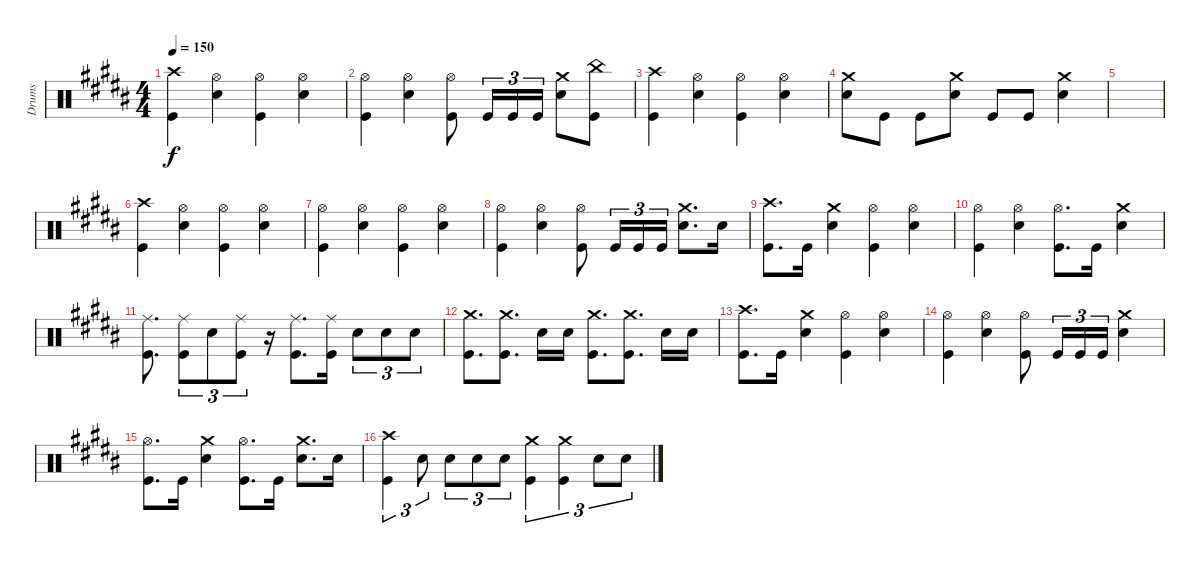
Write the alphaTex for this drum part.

\track ("Drums" "Drums") {instrument percussion}
\staff {score}
\articulation defaults
\ts (4 4)
\tempo 150
\clef neutral
\ks b
("Crash high (hit)" "Kick (hit)").4{dy f} ("Snare (hit) 2" "Hi-Hat (open)").4 ("Kick (hit)" "Hi-Hat (open)").4 ("Snare (hit) 2" "Hi-Hat (open)").4 |
\ks g#minor
("Kick (hit)" "Hi-Hat (open)").4 ("Snare (hit) 2" "Hi-Hat (open)").4 ("Kick (hit)" "Hi-Hat (open)").8 "Kick (hit)".16{tu (3 2)} "Kick (hit)".16{tu (3 2)} "Kick (hit)".16{tu (3 2)} ("Snare (hit) 2" "Crash medium (hit)").8 ("China (hit)" "Kick (hit)").8 |
("Crash high (hit)" "Kick (hit)").4 ("Snare (hit) 2" "Hi-Hat (open)").4 ("Kick (hit)" "Hi-Hat (open)").4 ("Snare (hit) 2" "Hi-Hat (open)").4 |
("Crash medium (hit)" "Snare (hit) 2").8 "Kick (hit)".8 "Kick (hit)".8 ("Crash medium (hit)" "Snare (hit) 2").8 "Kick (hit)".8 "Kick (hit)".8 ("Crash medium (hit)" "Snare (hit) 2").4 |
\ks b
|
\ks g#minor
("Crash high (hit)" "Kick (hit)").4 ("Snare (hit) 2" "Hi-Hat (open)").4 ("Kick (hit)" "Hi-Hat (open)").4 ("Snare (hit) 2" "Hi-Hat (open)").4 |
("Kick (hit)" "Hi-Hat (open)").4 ("Snare (hit) 2" "Hi-Hat (open)").4 ("Kick (hit)" "Hi-Hat (open)").4 ("Snare (hit) 2" "Hi-Hat (open)").4 |
("Kick (hit)" "Hi-Hat (open)").4 ("Snare (hit) 2" "Hi-Hat (open)").4 ("Kick (hit)" "Hi-Hat (open)").8 "Kick (hit)".16{tu (3 2)} "Kick (hit)".16{tu (3 2)} "Kick (hit)".16{tu (3 2)} ("Snare (hit) 2" "Crash medium (hit)").8{d} "Snare (hit) 2".16 |
\ks b
("Crash high (hit)" "Kick (hit)").8{d} "Kick (hit)".16 ("Crash medium (hit)" "Snare (hit) 2").4 ("Kick (hit)" "Hi-Hat (open)").4 ("Snare (hit) 2" "Hi-Hat (open)").4 |
\ks g#minor
("Kick (hit)" "Hi-Hat (open)").4 ("Snare (hit) 2" "Hi-Hat (open)").4 ("Kick (hit)" "Hi-Hat (open)").8{d} "Kick (hit)".16 ("Crash medium (hit)" "Snare (hit) 2").4 |
("Ride (middle)" "Kick (hit)").8{d} ("Kick (hit)" "Ride (middle)").8{tu (3 2)} "Snare (hit) 2".8{tu (3 2)} ("Kick (hit)" "Ride (middle)").8{tu (3 2)} r.16 ("Ride (middle)" "Kick (hit)").8{d} ("Kick (hit)" "Ride (middle)").16 "Snare (hit) 2".8{tu (3 2)} "Snare (hit) 2".8{tu (3 2)} "Snare (hit) 2".8{tu (3 2)} |
("Crash medium (hit)" "Kick (hit)").8{d} ("Kick (hit)" "Crash medium (hit)").8{d} "Snare (hit) 2".16 "Snare (hit) 2".16 ("Crash medium (hit)" "Kick (hit)").8{d} ("Kick (hit)" "Crash medium (hit)").8{d} "Snare (hit) 2".16 "Snare (hit) 2".16 |
\ks b
("Crash high (hit)" "Kick (hit)").8{d} "Kick (hit)".16 ("Crash medium (hit)" "Snare (hit) 2").4 ("Kick (hit)" "Hi-Hat (open)").4 ("Snare (hit) 2" "Hi-Hat (open)").4 |
\ks g#minor
("Kick (hit)" "Hi-Hat (open)").4 ("Snare (hit) 2" "Hi-Hat (open)").4 ("Kick (hit)" "Hi-Hat (open)").8 "Kick (hit)".16{tu (3 2)} "Kick (hit)".16{tu (3 2)} "Kick (hit)".16{tu (3 2)} ("Snare (hit) 2" "Crash medium (hit)").4 |
("Hi-Hat (open)" "Kick (hit)").8{d} "Kick (hit)".16 ("Crash medium (hit)" "Snare (hit) 2").4 ("Hi-Hat (open)" "Kick (hit)").8{d} "Kick (hit)".16 ("Crash medium (hit)" "Snare (hit) 2").8{d} "Snare (hit) 2".16 |
("Crash high (hit)" "Kick (hit)").4{tu (3 2)} "Snare (hit) 2".8{tu (3 2)} "Snare (hit) 2".8{tu (3 2)} "Snare (hit) 2".8{tu (3 2)} "Snare (hit) 2".8{tu (3 2)} ("Crash medium (hit)" "Kick (hit)").4{tu (3 2)} ("Crash medium (hit)" "Kick (hit)").4{tu (3 2)} "Snare (hit) 2".8{tu (3 2)} "Snare (hit) 2".8{tu (3 2)}
